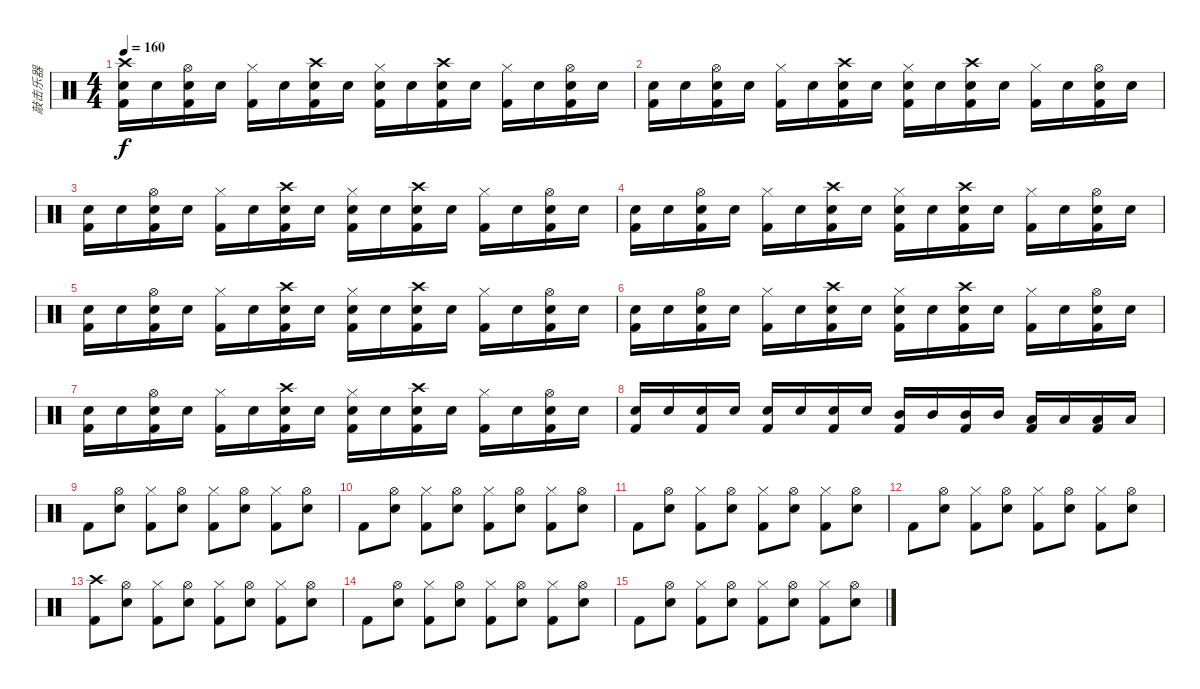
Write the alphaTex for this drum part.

\track ("敲击乐器" "敲击乐器") {instrument percussion}
\staff {score}
\articulation defaults
\ts (4 4)
\tempo 160
\clef neutral
\ks c
("Crash high (hit)" "Electric Snare (hit)" "Kick (hit) 2").16{dy f} "Electric Snare (hit)".16 ("Hi-Hat (open)" "Electric Snare (hit)" "Kick (hit) 2").16 "Electric Snare (hit)".16 ("Hi-Hat (closed)" "Kick (hit) 2").16 "Electric Snare (hit)".16 ("Crash high (hit)" "Electric Snare (hit)" "Kick (hit) 2").16 "Electric Snare (hit)".16 ("Hi-Hat (closed)" "Electric Snare (hit)" "Kick (hit) 2").16 "Electric Snare (hit)".16 ("Crash high (hit)" "Electric Snare (hit)" "Kick (hit) 2").16 "Electric Snare (hit)".16 ("Hi-Hat (closed)" "Kick (hit) 2").16 "Electric Snare (hit)".16 ("Hi-Hat (open)" "Electric Snare (hit)" "Kick (hit) 2").16 "Electric Snare (hit)".16 |
("Electric Snare (hit)" "Kick (hit) 2").16 "Electric Snare (hit)".16 ("Hi-Hat (open)" "Electric Snare (hit)" "Kick (hit) 2").16 "Electric Snare (hit)".16 ("Hi-Hat (closed)" "Kick (hit) 2").16 "Electric Snare (hit)".16 ("Crash high (hit)" "Electric Snare (hit)" "Kick (hit) 2").16 "Electric Snare (hit)".16 ("Hi-Hat (closed)" "Electric Snare (hit)" "Kick (hit) 2").16 "Electric Snare (hit)".16 ("Crash high (hit)" "Electric Snare (hit)" "Kick (hit) 2").16 "Electric Snare (hit)".16 ("Hi-Hat (closed)" "Kick (hit) 2").16 "Electric Snare (hit)".16 ("Hi-Hat (open)" "Electric Snare (hit)" "Kick (hit) 2").16 "Electric Snare (hit)".16 |
("Electric Snare (hit)" "Kick (hit) 2").16 "Electric Snare (hit)".16 ("Hi-Hat (open)" "Electric Snare (hit)" "Kick (hit) 2").16 "Electric Snare (hit)".16 ("Hi-Hat (closed)" "Kick (hit) 2").16 "Electric Snare (hit)".16 ("Crash high (hit)" "Electric Snare (hit)" "Kick (hit) 2").16 "Electric Snare (hit)".16 ("Hi-Hat (closed)" "Electric Snare (hit)" "Kick (hit) 2").16 "Electric Snare (hit)".16 ("Crash high (hit)" "Electric Snare (hit)" "Kick (hit) 2").16 "Electric Snare (hit)".16 ("Hi-Hat (closed)" "Kick (hit) 2").16 "Electric Snare (hit)".16 ("Hi-Hat (open)" "Electric Snare (hit)" "Kick (hit) 2").16 "Electric Snare (hit)".16 |
("Electric Snare (hit)" "Kick (hit) 2").16 "Electric Snare (hit)".16 ("Hi-Hat (open)" "Electric Snare (hit)" "Kick (hit) 2").16 "Electric Snare (hit)".16 ("Hi-Hat (closed)" "Kick (hit) 2").16 "Electric Snare (hit)".16 ("Crash high (hit)" "Electric Snare (hit)" "Kick (hit) 2").16 "Electric Snare (hit)".16 ("Hi-Hat (closed)" "Electric Snare (hit)" "Kick (hit) 2").16 "Electric Snare (hit)".16 ("Crash high (hit)" "Electric Snare (hit)" "Kick (hit) 2").16 "Electric Snare (hit)".16 ("Hi-Hat (closed)" "Kick (hit) 2").16 "Electric Snare (hit)".16 ("Hi-Hat (open)" "Electric Snare (hit)" "Kick (hit) 2").16 "Electric Snare (hit)".16 |
("Electric Snare (hit)" "Kick (hit) 2").16 "Electric Snare (hit)".16 ("Hi-Hat (open)" "Electric Snare (hit)" "Kick (hit) 2").16 "Electric Snare (hit)".16 ("Hi-Hat (closed)" "Kick (hit) 2").16 "Electric Snare (hit)".16 ("Crash high (hit)" "Electric Snare (hit)" "Kick (hit) 2").16 "Electric Snare (hit)".16 ("Hi-Hat (closed)" "Electric Snare (hit)" "Kick (hit) 2").16 "Electric Snare (hit)".16 ("Crash high (hit)" "Electric Snare (hit)" "Kick (hit) 2").16 "Electric Snare (hit)".16 ("Hi-Hat (closed)" "Kick (hit) 2").16 "Electric Snare (hit)".16 ("Hi-Hat (open)" "Electric Snare (hit)" "Kick (hit) 2").16 "Electric Snare (hit)".16 |
("Electric Snare (hit)" "Kick (hit) 2").16 "Electric Snare (hit)".16 ("Hi-Hat (open)" "Electric Snare (hit)" "Kick (hit) 2").16 "Electric Snare (hit)".16 ("Hi-Hat (closed)" "Kick (hit) 2").16 "Electric Snare (hit)".16 ("Crash high (hit)" "Electric Snare (hit)" "Kick (hit) 2").16 "Electric Snare (hit)".16 ("Hi-Hat (closed)" "Electric Snare (hit)" "Kick (hit) 2").16 "Electric Snare (hit)".16 ("Crash high (hit)" "Electric Snare (hit)" "Kick (hit) 2").16 "Electric Snare (hit)".16 ("Hi-Hat (closed)" "Kick (hit) 2").16 "Electric Snare (hit)".16 ("Hi-Hat (open)" "Electric Snare (hit)" "Kick (hit) 2").16 "Electric Snare (hit)".16 |
("Electric Snare (hit)" "Kick (hit) 2").16 "Electric Snare (hit)".16 ("Hi-Hat (open)" "Electric Snare (hit)" "Kick (hit) 2").16 "Electric Snare (hit)".16 ("Hi-Hat (closed)" "Kick (hit) 2").16 "Electric Snare (hit)".16 ("Crash high (hit)" "Electric Snare (hit)" "Kick (hit) 2").16 "Electric Snare (hit)".16 ("Hi-Hat (closed)" "Electric Snare (hit)" "Kick (hit) 2").16 "Electric Snare (hit)".16 ("Crash high (hit)" "Electric Snare (hit)" "Kick (hit) 2").16 "Electric Snare (hit)".16 ("Hi-Hat (closed)" "Kick (hit) 2").16 "Electric Snare (hit)".16 ("Hi-Hat (open)" "Electric Snare (hit)" "Kick (hit) 2").16 "Electric Snare (hit)".16 |
("Electric Snare (hit)" "Kick (hit) 2").16 "Electric Snare (hit)".16 ("Electric Snare (hit)" "Kick (hit) 2").16 "Electric Snare (hit)".16 ("Snare (hit) 2" "Kick (hit) 2").16 "Snare (hit) 2".16 ("Snare (hit) 2" "Kick (hit) 2").16 "Snare (hit) 2".16 ("Mid Tom (hit)" "Kick (hit) 2").16 "Mid Tom (hit)".16 ("Mid Tom (hit)" "Kick (hit) 2").16 "Mid Tom (hit)".16 ("Low Tom (hit)" "Kick (hit) 2").16 "Low Tom (hit)".16 ("Low Tom (hit)" "Kick (hit) 2").16 "Low Tom (hit)".16 |
"Kick (hit) 2".8 ("Hi-Hat (open)" "Electric Snare (hit)").8 ("Hi-Hat (closed)" "Kick (hit) 2").8 ("Hi-Hat (open)" "Electric Snare (hit)").8 ("Hi-Hat (closed)" "Kick (hit) 2").8 ("Hi-Hat (open)" "Electric Snare (hit)").8 ("Hi-Hat (closed)" "Kick (hit) 2").8 ("Hi-Hat (open)" "Electric Snare (hit)").8 |
"Kick (hit) 2".8 ("Hi-Hat (open)" "Electric Snare (hit)").8 ("Hi-Hat (closed)" "Kick (hit) 2").8 ("Hi-Hat (open)" "Electric Snare (hit)").8 ("Hi-Hat (closed)" "Kick (hit) 2").8 ("Hi-Hat (open)" "Electric Snare (hit)").8 ("Hi-Hat (closed)" "Kick (hit) 2").8 ("Hi-Hat (open)" "Electric Snare (hit)").8 |
"Kick (hit) 2".8 ("Hi-Hat (open)" "Electric Snare (hit)").8 ("Hi-Hat (closed)" "Kick (hit) 2").8 ("Hi-Hat (open)" "Electric Snare (hit)").8 ("Hi-Hat (closed)" "Kick (hit) 2").8 ("Hi-Hat (open)" "Electric Snare (hit)").8 ("Hi-Hat (closed)" "Kick (hit) 2").8 ("Hi-Hat (open)" "Electric Snare (hit)").8 |
"Kick (hit) 2".8 ("Hi-Hat (open)" "Electric Snare (hit)").8 ("Hi-Hat (closed)" "Kick (hit) 2").8 ("Hi-Hat (open)" "Electric Snare (hit)").8 ("Hi-Hat (closed)" "Kick (hit) 2").8 ("Hi-Hat (open)" "Electric Snare (hit)").8 ("Hi-Hat (closed)" "Kick (hit) 2").8 ("Hi-Hat (open)" "Electric Snare (hit)").8 |
("Crash high (hit)" "Kick (hit) 2").8 ("Hi-Hat (open)" "Electric Snare (hit)").8 ("Hi-Hat (closed)" "Kick (hit) 2").8 ("Hi-Hat (open)" "Electric Snare (hit)").8 ("Hi-Hat (closed)" "Kick (hit) 2").8 ("Hi-Hat (open)" "Electric Snare (hit)").8 ("Hi-Hat (closed)" "Kick (hit) 2").8 ("Hi-Hat (open)" "Electric Snare (hit)").8 |
"Kick (hit) 2".8 ("Hi-Hat (open)" "Electric Snare (hit)").8 ("Hi-Hat (closed)" "Kick (hit) 2").8 ("Hi-Hat (open)" "Electric Snare (hit)").8 ("Hi-Hat (closed)" "Kick (hit) 2").8 ("Hi-Hat (open)" "Electric Snare (hit)").8 ("Hi-Hat (closed)" "Kick (hit) 2").8 ("Hi-Hat (open)" "Electric Snare (hit)").8 |
"Kick (hit) 2".8 ("Hi-Hat (open)" "Electric Snare (hit)").8 ("Hi-Hat (closed)" "Kick (hit) 2").8 ("Hi-Hat (open)" "Electric Snare (hit)").8 ("Hi-Hat (closed)" "Kick (hit) 2").8 ("Hi-Hat (open)" "Electric Snare (hit)").8 ("Hi-Hat (closed)" "Kick (hit) 2").8 ("Hi-Hat (open)" "Electric Snare (hit)").8
